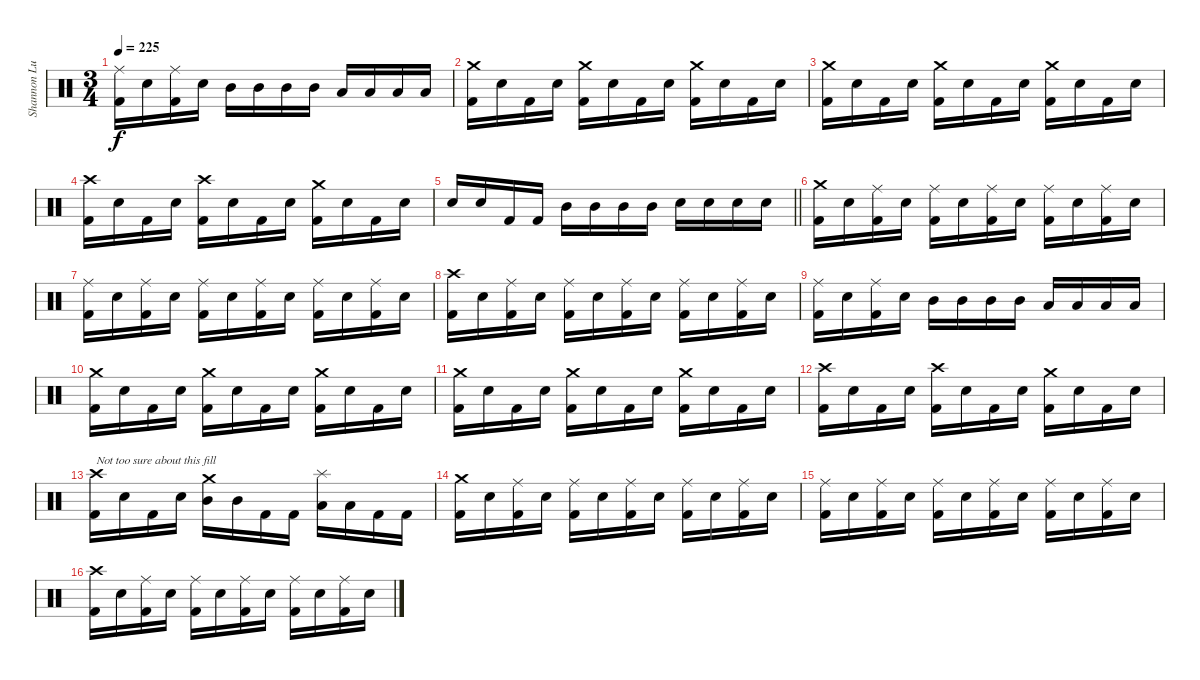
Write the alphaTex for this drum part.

\track ("Shannon Lucas" "Shannon Lu") {instrument percussion}
\staff {score}
\articulation defaults
\ts (3 4)
\tempo 225
\clef neutral
\ks c
("Ride (middle)" "Kick (hit) 2").16{dy f} "Electric Snare (hit)".16 ("Ride (middle)" "Kick (hit) 2").16 "Electric Snare (hit)".16 "Mid Tom (hit)".16 "Mid Tom (hit)".16 "Mid Tom (hit)".16 "Mid Tom (hit)".16 "Low Tom (hit)".16 "Low Tom (hit)".16 "Low Tom (hit)".16 "Low Tom (hit)".16 |
("Crash medium (hit)" "Kick (hit) 2").16 "Electric Snare (hit)".16 "Kick (hit) 2".16 "Electric Snare (hit)".16 ("Crash medium (hit)" "Kick (hit) 2").16 "Electric Snare (hit)".16 "Kick (hit) 2".16 "Electric Snare (hit)".16 ("Crash medium (hit)" "Kick (hit) 2").16 "Electric Snare (hit)".16 "Kick (hit) 2".16 "Electric Snare (hit)".16 |
("Crash medium (hit)" "Kick (hit) 2").16 "Electric Snare (hit)".16 "Kick (hit) 2".16 "Electric Snare (hit)".16 ("Crash medium (hit)" "Kick (hit) 2").16 "Electric Snare (hit)".16 "Kick (hit) 2".16 "Electric Snare (hit)".16 ("Crash medium (hit)" "Kick (hit) 2").16 "Electric Snare (hit)".16 "Kick (hit) 2".16 "Electric Snare (hit)".16 |
("Crash high (hit)" "Kick (hit) 2").16 "Electric Snare (hit)".16 "Kick (hit) 2".16 "Electric Snare (hit)".16 ("Crash high (hit)" "Kick (hit) 2").16 "Electric Snare (hit)".16 "Kick (hit) 2".16 "Electric Snare (hit)".16 ("Crash medium (hit)" "Kick (hit) 2").16 "Electric Snare (hit)".16 "Kick (hit) 2".16 "Electric Snare (hit)".16 |
\barLineRight lightlight "Electric Snare (hit)".16 "Electric Snare (hit)".16 "Kick (hit) 2".16 "Kick (hit) 2".16 "Mid Tom (hit)".16 "Mid Tom (hit)".16 "Mid Tom (hit)".16 "Mid Tom (hit)".16 "Electric Snare (hit)".16 "Electric Snare (hit)".16 "Electric Snare (hit)".16 "Electric Snare (hit)".16
|
("Crash medium (hit)" "Kick (hit) 2").16 "Electric Snare (hit)".16 ("Ride (middle)" "Kick (hit) 2").16 "Electric Snare (hit)".16 ("Ride (middle)" "Kick (hit) 2").16 "Electric Snare (hit)".16 ("Ride (middle)" "Kick (hit) 2").16 "Electric Snare (hit)".16 ("Ride (middle)" "Kick (hit) 2").16 "Electric Snare (hit)".16 ("Ride (middle)" "Kick (hit) 2").16 "Electric Snare (hit)".16 |
("Ride (middle)" "Kick (hit) 2").16 "Electric Snare (hit)".16 ("Ride (middle)" "Kick (hit) 2").16 "Electric Snare (hit)".16 ("Ride (middle)" "Kick (hit) 2").16 "Electric Snare (hit)".16 ("Ride (middle)" "Kick (hit) 2").16 "Electric Snare (hit)".16 ("Ride (middle)" "Kick (hit) 2").16 "Electric Snare (hit)".16 ("Ride (middle)" "Kick (hit) 2").16 "Electric Snare (hit)".16 |
("Crash high (hit)" "Kick (hit) 2").16 "Electric Snare (hit)".16 ("Ride (middle)" "Kick (hit) 2").16 "Electric Snare (hit)".16 ("Ride (middle)" "Kick (hit) 2").16 "Electric Snare (hit)".16 ("Ride (middle)" "Kick (hit) 2").16 "Electric Snare (hit)".16 ("Ride (middle)" "Kick (hit) 2").16 "Electric Snare (hit)".16 ("Ride (middle)" "Kick (hit) 2").16 "Electric Snare (hit)".16 |
("Ride (middle)" "Kick (hit) 2").16 "Electric Snare (hit)".16 ("Ride (middle)" "Kick (hit) 2").16 "Electric Snare (hit)".16 "Mid Tom (hit)".16 "Mid Tom (hit)".16 "Mid Tom (hit)".16 "Mid Tom (hit)".16 "Low Tom (hit)".16 "Low Tom (hit)".16 "Low Tom (hit)".16 "Low Tom (hit)".16 |
("Crash medium (hit)" "Kick (hit) 2").16 "Electric Snare (hit)".16 "Kick (hit) 2".16 "Electric Snare (hit)".16 ("Crash medium (hit)" "Kick (hit) 2").16 "Electric Snare (hit)".16 "Kick (hit) 2".16 "Electric Snare (hit)".16 ("Crash medium (hit)" "Kick (hit) 2").16 "Electric Snare (hit)".16 "Kick (hit) 2".16 "Electric Snare (hit)".16 |
("Crash medium (hit)" "Kick (hit) 2").16 "Electric Snare (hit)".16 "Kick (hit) 2".16 "Electric Snare (hit)".16 ("Crash medium (hit)" "Kick (hit) 2").16 "Electric Snare (hit)".16 "Kick (hit) 2".16 "Electric Snare (hit)".16 ("Crash medium (hit)" "Kick (hit) 2").16 "Electric Snare (hit)".16 "Kick (hit) 2".16 "Electric Snare (hit)".16 |
("Crash high (hit)" "Kick (hit) 2").16 "Electric Snare (hit)".16 "Kick (hit) 2".16 "Electric Snare (hit)".16 ("Crash high (hit)" "Kick (hit) 2").16 "Electric Snare (hit)".16 "Kick (hit) 2".16 "Electric Snare (hit)".16 ("Crash medium (hit)" "Kick (hit) 2").16 "Electric Snare (hit)".16 "Kick (hit) 2".16 "Electric Snare (hit)".16 |
("Crash high (hit)" "Kick (hit) 2").16{txt "Not too sure about this fill"} "Electric Snare (hit)".16 "Kick (hit) 2".16 "Electric Snare (hit)".16 ("Crash medium (hit)" "Mid Tom (hit)").16 "Mid Tom (hit)".16 "Kick (hit) 2".16 "Kick (hit) 2".16 ("Splash (hit)" "Low Tom (hit)").16 "Low Tom (hit)".16 "Kick (hit) 2".16 "Kick (hit) 2".16 |
("Crash medium (hit)" "Kick (hit) 2").16 "Electric Snare (hit)".16 ("Ride (middle)" "Kick (hit) 2").16 "Electric Snare (hit)".16 ("Ride (middle)" "Kick (hit) 2").16 "Electric Snare (hit)".16 ("Ride (middle)" "Kick (hit) 2").16 "Electric Snare (hit)".16 ("Ride (middle)" "Kick (hit) 2").16 "Electric Snare (hit)".16 ("Ride (middle)" "Kick (hit) 2").16 "Electric Snare (hit)".16 |
("Ride (middle)" "Kick (hit) 2").16 "Electric Snare (hit)".16 ("Ride (middle)" "Kick (hit) 2").16 "Electric Snare (hit)".16 ("Ride (middle)" "Kick (hit) 2").16 "Electric Snare (hit)".16 ("Ride (middle)" "Kick (hit) 2").16 "Electric Snare (hit)".16 ("Ride (middle)" "Kick (hit) 2").16 "Electric Snare (hit)".16 ("Ride (middle)" "Kick (hit) 2").16 "Electric Snare (hit)".16 |
("Crash high (hit)" "Kick (hit) 2").16 "Electric Snare (hit)".16 ("Ride (middle)" "Kick (hit) 2").16 "Electric Snare (hit)".16 ("Ride (middle)" "Kick (hit) 2").16 "Electric Snare (hit)".16 ("Ride (middle)" "Kick (hit) 2").16 "Electric Snare (hit)".16 ("Ride (middle)" "Kick (hit) 2").16 "Electric Snare (hit)".16 ("Ride (middle)" "Kick (hit) 2").16 "Electric Snare (hit)".16
